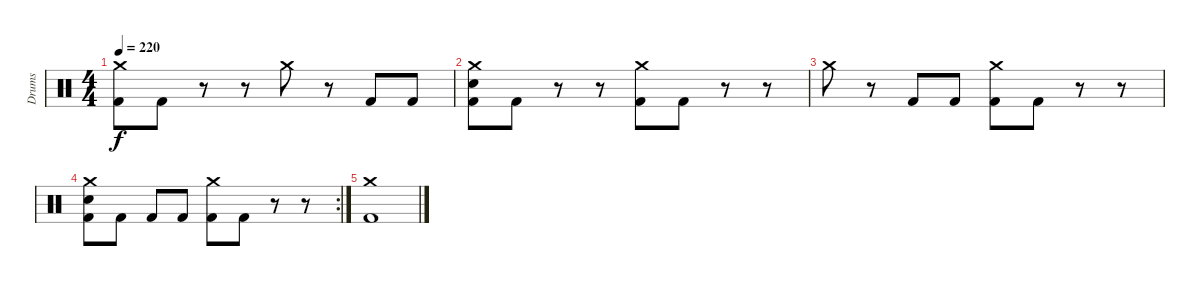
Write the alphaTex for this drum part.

\track ("Drums" "Drums") {instrument percussion}
\staff {score}
\articulation defaults
\ts (4 4)
\tempo 220
\clef neutral
\ks c
("Crash medium (hit)" "Kick (hit) 2").8{dy f} "Kick (hit) 2".8 r.8 r.8 "Crash medium (hit)".8 r.8 "Kick (hit) 2".8 "Kick (hit) 2".8 |
("Crash medium (hit)" "Electric Snare (hit)" "Kick (hit) 2").8 "Kick (hit) 2".8 r.8 r.8 ("Crash medium (hit)" "Kick (hit) 2").8 "Kick (hit) 2".8 r.8 r.8 |
"Crash medium (hit)".8 r.8 "Kick (hit) 2".8 "Kick (hit) 2".8 ("Crash medium (hit)" "Kick (hit) 2").8 "Kick (hit) 2".8 r.8 r.8 |
\rc 2
("Crash medium (hit)" "Electric Snare (hit)" "Kick (hit) 2").8 "Kick (hit) 2".8 "Kick (hit) 2".8 "Kick (hit) 2".8 ("Crash medium (hit)" "Kick (hit) 2").8 "Kick (hit) 2".8 r.8 r.8 |
("Crash medium (hit)" "Kick (hit) 2").1
